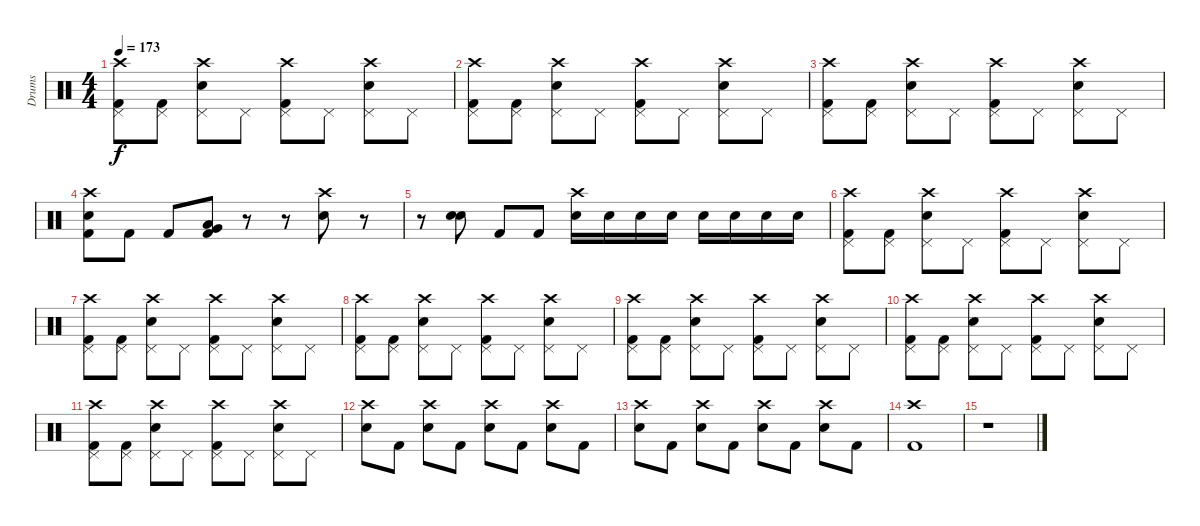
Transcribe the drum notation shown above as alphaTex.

\track ("Drums" "Drums") {instrument percussion}
\staff {score}
\articulation defaults
\ts (4 4)
\tempo 173
\clef neutral
\ks c
("Crash high (hit)" "Pedal Hi-Hat (hit)" "Kick (hit) 2").8{dy f} ("Pedal Hi-Hat (hit)" "Kick (hit) 2").8 ("Crash high (hit)" "Pedal Hi-Hat (hit)" "Snare (hit) 2").8 "Pedal Hi-Hat (hit)".8 ("Crash high (hit)" "Pedal Hi-Hat (hit)" "Kick (hit) 2").8 "Pedal Hi-Hat (hit)".8 ("Crash high (hit)" "Pedal Hi-Hat (hit)" "Snare (hit) 2").8 "Pedal Hi-Hat (hit)".8 |
("Crash high (hit)" "Pedal Hi-Hat (hit)" "Kick (hit) 2").8 ("Pedal Hi-Hat (hit)" "Kick (hit) 2").8 ("Crash high (hit)" "Pedal Hi-Hat (hit)" "Snare (hit) 2").8 "Pedal Hi-Hat (hit)".8 ("Crash high (hit)" "Pedal Hi-Hat (hit)" "Kick (hit) 2").8 "Pedal Hi-Hat (hit)".8 ("Crash high (hit)" "Pedal Hi-Hat (hit)" "Snare (hit) 2").8 "Pedal Hi-Hat (hit)".8 |
("Crash high (hit)" "Pedal Hi-Hat (hit)" "Kick (hit) 2").8 ("Pedal Hi-Hat (hit)" "Kick (hit) 2").8 ("Crash high (hit)" "Pedal Hi-Hat (hit)" "Snare (hit) 2").8 "Pedal Hi-Hat (hit)".8 ("Crash high (hit)" "Pedal Hi-Hat (hit)" "Kick (hit) 2").8 "Pedal Hi-Hat (hit)".8 ("Crash high (hit)" "Pedal Hi-Hat (hit)" "Snare (hit) 2").8 "Pedal Hi-Hat (hit)".8 |
("Crash high (hit)" "Snare (hit) 2" "Kick (hit) 2").8 "Kick (hit) 2".8 "Kick (hit) 2".8 ("Kick (hit) 2" "Very Low Tom (hit)" "Low Floor Tom (hit)").8 r.8 r.8 ("Snare (hit) 2" "Crash high (hit)").8 r.8 |
r.8 ("Snare (hit) 2" "Electric Snare (hit)").8 "Kick (hit) 2".8 "Kick (hit) 2".8 ("Crash high (hit)" "Snare (hit) 2").16 "Snare (hit) 2".16 "Snare (hit) 2".16 "Snare (hit) 2".16 "Snare (hit) 2".16 "Snare (hit) 2".16 "Snare (hit) 2".16 "Snare (hit) 2".16 |
("Crash high (hit)" "Pedal Hi-Hat (hit)" "Kick (hit) 2").8 ("Pedal Hi-Hat (hit)" "Kick (hit) 2").8 ("Crash high (hit)" "Pedal Hi-Hat (hit)" "Snare (hit) 2").8 "Pedal Hi-Hat (hit)".8 ("Crash high (hit)" "Pedal Hi-Hat (hit)" "Kick (hit) 2").8 "Pedal Hi-Hat (hit)".8 ("Crash high (hit)" "Pedal Hi-Hat (hit)" "Snare (hit) 2").8 "Pedal Hi-Hat (hit)".8 |
("Crash high (hit)" "Pedal Hi-Hat (hit)" "Kick (hit) 2").8 ("Pedal Hi-Hat (hit)" "Kick (hit) 2").8 ("Crash high (hit)" "Pedal Hi-Hat (hit)" "Snare (hit) 2").8 "Pedal Hi-Hat (hit)".8 ("Crash high (hit)" "Pedal Hi-Hat (hit)" "Kick (hit) 2").8 "Pedal Hi-Hat (hit)".8 ("Crash high (hit)" "Pedal Hi-Hat (hit)" "Snare (hit) 2").8 "Pedal Hi-Hat (hit)".8 |
("Crash high (hit)" "Pedal Hi-Hat (hit)" "Kick (hit) 2").8 ("Pedal Hi-Hat (hit)" "Kick (hit) 2").8 ("Crash high (hit)" "Pedal Hi-Hat (hit)" "Snare (hit) 2").8 "Pedal Hi-Hat (hit)".8 ("Crash high (hit)" "Pedal Hi-Hat (hit)" "Kick (hit) 2").8 "Pedal Hi-Hat (hit)".8 ("Crash high (hit)" "Pedal Hi-Hat (hit)" "Snare (hit) 2").8 "Pedal Hi-Hat (hit)".8 |
("Crash high (hit)" "Pedal Hi-Hat (hit)" "Kick (hit) 2").8 ("Pedal Hi-Hat (hit)" "Kick (hit) 2").8 ("Crash high (hit)" "Pedal Hi-Hat (hit)" "Snare (hit) 2").8 "Pedal Hi-Hat (hit)".8 ("Crash high (hit)" "Pedal Hi-Hat (hit)" "Kick (hit) 2").8 "Pedal Hi-Hat (hit)".8 ("Crash high (hit)" "Pedal Hi-Hat (hit)" "Snare (hit) 2").8 "Pedal Hi-Hat (hit)".8 |
("Crash high (hit)" "Pedal Hi-Hat (hit)" "Kick (hit) 2").8 ("Pedal Hi-Hat (hit)" "Kick (hit) 2").8 ("Crash high (hit)" "Pedal Hi-Hat (hit)" "Snare (hit) 2").8 "Pedal Hi-Hat (hit)".8 ("Crash high (hit)" "Pedal Hi-Hat (hit)" "Kick (hit) 2").8 "Pedal Hi-Hat (hit)".8 ("Crash high (hit)" "Pedal Hi-Hat (hit)" "Snare (hit) 2").8 "Pedal Hi-Hat (hit)".8 |
("Crash high (hit)" "Pedal Hi-Hat (hit)" "Kick (hit) 2").8 ("Pedal Hi-Hat (hit)" "Kick (hit) 2").8 ("Crash high (hit)" "Pedal Hi-Hat (hit)" "Snare (hit) 2").8 "Pedal Hi-Hat (hit)".8 ("Crash high (hit)" "Pedal Hi-Hat (hit)" "Kick (hit) 2").8 "Pedal Hi-Hat (hit)".8 ("Crash high (hit)" "Pedal Hi-Hat (hit)" "Snare (hit) 2").8 "Pedal Hi-Hat (hit)".8 |
("Crash high (hit)" "Snare (hit) 2").8 "Kick (hit) 2".8 ("Crash high (hit)" "Snare (hit) 2").8 "Kick (hit) 2".8 ("Crash high (hit)" "Snare (hit) 2").8 "Kick (hit) 2".8 ("Crash high (hit)" "Snare (hit) 2").8 "Kick (hit) 2".8 |
("Crash high (hit)" "Snare (hit) 2").8 "Kick (hit) 2".8 ("Crash high (hit)" "Snare (hit) 2").8 "Kick (hit) 2".8 ("Crash high (hit)" "Snare (hit) 2").8 "Kick (hit) 2".8 ("Crash high (hit)" "Snare (hit) 2").8 "Kick (hit) 2".8 |
("Crash high (hit)" "Kick (hit) 2").1 |
r.1
